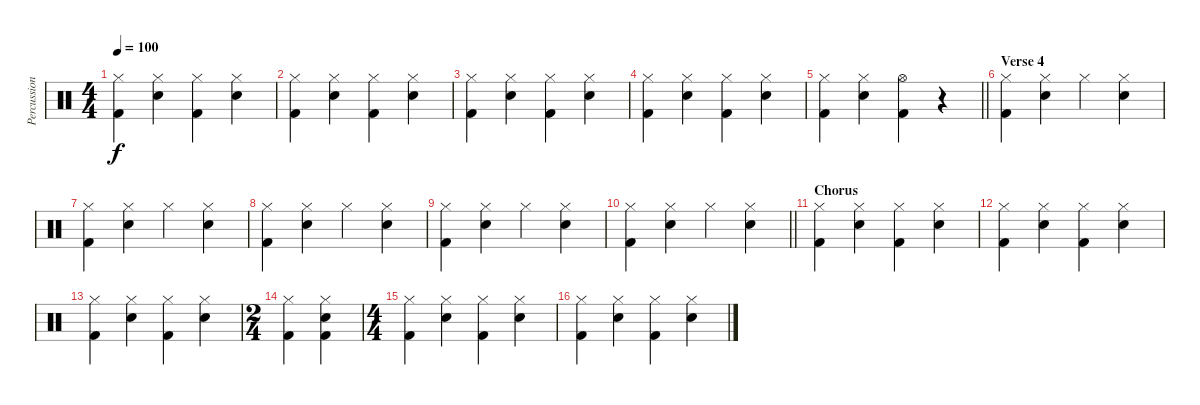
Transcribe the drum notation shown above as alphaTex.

\track ("Percussion" "Percussion") {instrument percussion}
\staff {score}
\articulation defaults
\ts (4 4)
\tempo 100
\clef neutral
\ks c
("Hi-Hat (closed)" "Kick (hit) 2").4{dy f} ("Hi-Hat (closed)" "Snare (hit) 2").4 ("Hi-Hat (closed)" "Kick (hit) 2").4 ("Hi-Hat (closed)" "Snare (hit) 2").4 |
("Hi-Hat (closed)" "Kick (hit) 2").4 ("Hi-Hat (closed)" "Snare (hit) 2").4 ("Hi-Hat (closed)" "Kick (hit) 2").4 ("Hi-Hat (closed)" "Snare (hit) 2").4 |
("Hi-Hat (closed)" "Kick (hit) 2").4 ("Hi-Hat (closed)" "Snare (hit) 2").4 ("Hi-Hat (closed)" "Kick (hit) 2").4 ("Hi-Hat (closed)" "Snare (hit) 2").4 |
("Hi-Hat (closed)" "Kick (hit) 2").4 ("Hi-Hat (closed)" "Snare (hit) 2").4 ("Hi-Hat (closed)" "Kick (hit) 2").4 ("Hi-Hat (closed)" "Snare (hit) 2").4 |
\barLineRight lightlight
("Hi-Hat (closed)" "Kick (hit) 2").4 ("Hi-Hat (closed)" "Snare (hit) 2").4 ("Hi-Hat (open)" "Kick (hit) 2").4 r.4 |
\section ("" "Verse 4")
("Hi-Hat (closed)" "Kick (hit) 2").4 ("Hi-Hat (closed)" "Snare (hit) 2").4 "Hi-Hat (closed)".4 ("Hi-Hat (closed)" "Snare (hit) 2").4 |
("Hi-Hat (closed)" "Kick (hit) 2").4 ("Hi-Hat (closed)" "Snare (hit) 2").4 "Hi-Hat (closed)".4 ("Hi-Hat (closed)" "Snare (hit) 2").4 |
("Hi-Hat (closed)" "Kick (hit) 2").4 ("Hi-Hat (closed)" "Snare (hit) 2").4 "Hi-Hat (closed)".4 ("Hi-Hat (closed)" "Snare (hit) 2").4 |
("Hi-Hat (closed)" "Kick (hit) 2").4 ("Hi-Hat (closed)" "Snare (hit) 2").4 "Hi-Hat (closed)".4 ("Hi-Hat (closed)" "Snare (hit) 2").4 |
\barLineRight lightlight
("Hi-Hat (closed)" "Kick (hit) 2").4 ("Hi-Hat (closed)" "Snare (hit) 2").4 "Hi-Hat (closed)".4 ("Hi-Hat (closed)" "Snare (hit) 2").4 |
\section ("" "Chorus")
("Hi-Hat (closed)" "Kick (hit) 2").4 ("Hi-Hat (closed)" "Snare (hit) 2").4 ("Hi-Hat (closed)" "Kick (hit) 2").4 ("Hi-Hat (closed)" "Snare (hit) 2").4 |
("Hi-Hat (closed)" "Kick (hit) 2").4 ("Hi-Hat (closed)" "Snare (hit) 2").4 ("Hi-Hat (closed)" "Kick (hit) 2").4 ("Hi-Hat (closed)" "Snare (hit) 2").4 |
("Hi-Hat (closed)" "Kick (hit) 2").4 ("Hi-Hat (closed)" "Snare (hit) 2").4 ("Hi-Hat (closed)" "Kick (hit) 2").4 ("Hi-Hat (closed)" "Snare (hit) 2").4 |
\ts (2 4)
("Hi-Hat (closed)" "Kick (hit) 2").4 ("Hi-Hat (closed)" "Snare (hit) 2" "Kick (hit) 2").4 |
\ts (4 4)
("Hi-Hat (closed)" "Kick (hit) 2").4 ("Hi-Hat (closed)" "Snare (hit) 2").4 ("Hi-Hat (closed)" "Kick (hit) 2").4 ("Hi-Hat (closed)" "Snare (hit) 2").4 |
("Hi-Hat (closed)" "Kick (hit) 2").4 ("Hi-Hat (closed)" "Snare (hit) 2").4 ("Hi-Hat (closed)" "Kick (hit) 2").4 ("Hi-Hat (closed)" "Snare (hit) 2").4
